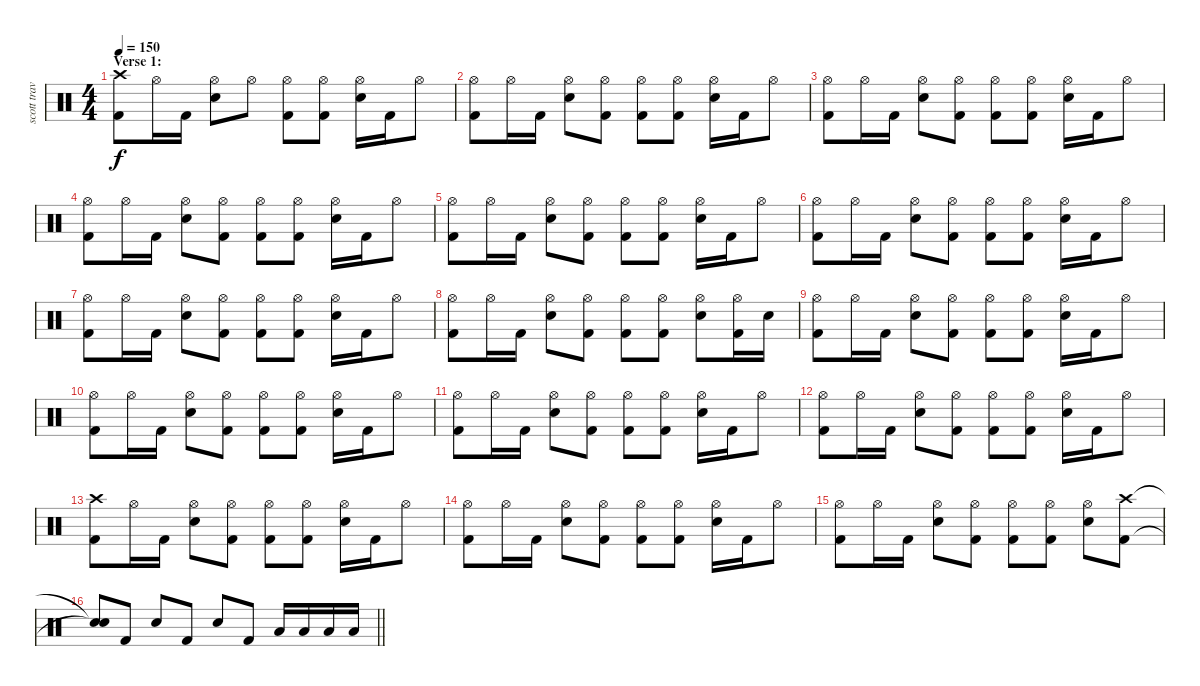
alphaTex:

\track ("scott travis" "scott trav") {instrument percussion}
\staff {score}
\articulation defaults
\ts (4 4)
\section ("" "Verse 1:")
\tempo 150
\clef neutral
\ks c
("Crash high (hit)" "Kick (hit) 2").8{dy f} "Hi-Hat (open)".16 "Kick (hit) 2".16 ("Hi-Hat (open)" "Snare (hit) 2").8 "Hi-Hat (open)".8 ("Hi-Hat (open)" "Kick (hit) 2").8 ("Hi-Hat (open)" "Kick (hit) 2").8 ("Hi-Hat (open)" "Snare (hit) 2").16 "Kick (hit) 2".16 "Hi-Hat (open)".8 |
("Hi-Hat (open)" "Kick (hit) 2").8 "Hi-Hat (open)".16 "Kick (hit) 2".16 ("Hi-Hat (open)" "Snare (hit) 2").8 ("Hi-Hat (open)" "Kick (hit) 2").8 ("Hi-Hat (open)" "Kick (hit) 2").8 ("Hi-Hat (open)" "Kick (hit) 2").8 ("Hi-Hat (open)" "Snare (hit) 2").16 "Kick (hit) 2".16 "Hi-Hat (open)".8 |
("Hi-Hat (open)" "Kick (hit) 2").8 "Hi-Hat (open)".16 "Kick (hit) 2".16 ("Hi-Hat (open)" "Snare (hit) 2").8 ("Hi-Hat (open)" "Kick (hit) 2").8 ("Hi-Hat (open)" "Kick (hit) 2").8 ("Hi-Hat (open)" "Kick (hit) 2").8 ("Hi-Hat (open)" "Snare (hit) 2").16 "Kick (hit) 2".16 "Hi-Hat (open)".8 |
("Hi-Hat (open)" "Kick (hit) 2").8 "Hi-Hat (open)".16 "Kick (hit) 2".16 ("Hi-Hat (open)" "Snare (hit) 2").8 ("Hi-Hat (open)" "Kick (hit) 2").8 ("Hi-Hat (open)" "Kick (hit) 2").8 ("Hi-Hat (open)" "Kick (hit) 2").8 ("Hi-Hat (open)" "Snare (hit) 2").16 "Kick (hit) 2".16 "Hi-Hat (open)".8 |
("Hi-Hat (open)" "Kick (hit) 2").8 "Hi-Hat (open)".16 "Kick (hit) 2".16 ("Hi-Hat (open)" "Snare (hit) 2").8 ("Hi-Hat (open)" "Kick (hit) 2").8 ("Hi-Hat (open)" "Kick (hit) 2").8 ("Hi-Hat (open)" "Kick (hit) 2").8 ("Hi-Hat (open)" "Snare (hit) 2").16 "Kick (hit) 2".16 "Hi-Hat (open)".8 |
("Hi-Hat (open)" "Kick (hit) 2").8 "Hi-Hat (open)".16 "Kick (hit) 2".16 ("Hi-Hat (open)" "Snare (hit) 2").8 ("Hi-Hat (open)" "Kick (hit) 2").8 ("Hi-Hat (open)" "Kick (hit) 2").8 ("Hi-Hat (open)" "Kick (hit) 2").8 ("Hi-Hat (open)" "Snare (hit) 2").16 "Kick (hit) 2".16 "Hi-Hat (open)".8 |
("Hi-Hat (open)" "Kick (hit) 2").8 "Hi-Hat (open)".16 "Kick (hit) 2".16 ("Hi-Hat (open)" "Snare (hit) 2").8 ("Hi-Hat (open)" "Kick (hit) 2").8 ("Hi-Hat (open)" "Kick (hit) 2").8 ("Hi-Hat (open)" "Kick (hit) 2").8 ("Hi-Hat (open)" "Snare (hit) 2").16 "Kick (hit) 2".16 "Hi-Hat (open)".8 |
("Hi-Hat (open)" "Kick (hit) 2").8 "Hi-Hat (open)".16 "Kick (hit) 2".16 ("Hi-Hat (open)" "Snare (hit) 2").8 ("Hi-Hat (open)" "Kick (hit) 2").8 ("Hi-Hat (open)" "Kick (hit) 2").8 ("Hi-Hat (open)" "Kick (hit) 2").8 ("Hi-Hat (open)" "Snare (hit) 2").8 ("Hi-Hat (open)" "Kick (hit) 2").16 "Snare (hit) 2".16 |
("Hi-Hat (open)" "Kick (hit) 2").8 "Hi-Hat (open)".16 "Kick (hit) 2".16 ("Hi-Hat (open)" "Snare (hit) 2").8 ("Hi-Hat (open)" "Kick (hit) 2").8 ("Hi-Hat (open)" "Kick (hit) 2").8 ("Hi-Hat (open)" "Kick (hit) 2").8 ("Hi-Hat (open)" "Snare (hit) 2").16 "Kick (hit) 2".16 "Hi-Hat (open)".8 |
("Hi-Hat (open)" "Kick (hit) 2").8 "Hi-Hat (open)".16 "Kick (hit) 2".16 ("Hi-Hat (open)" "Snare (hit) 2").8 ("Hi-Hat (open)" "Kick (hit) 2").8 ("Hi-Hat (open)" "Kick (hit) 2").8 ("Hi-Hat (open)" "Kick (hit) 2").8 ("Hi-Hat (open)" "Snare (hit) 2").16 "Kick (hit) 2".16 "Hi-Hat (open)".8 |
("Hi-Hat (open)" "Kick (hit) 2").8 "Hi-Hat (open)".16 "Kick (hit) 2".16 ("Hi-Hat (open)" "Snare (hit) 2").8 ("Hi-Hat (open)" "Kick (hit) 2").8 ("Hi-Hat (open)" "Kick (hit) 2").8 ("Hi-Hat (open)" "Kick (hit) 2").8 ("Hi-Hat (open)" "Snare (hit) 2").16 "Kick (hit) 2".16 "Hi-Hat (open)".8 |
("Hi-Hat (open)" "Kick (hit) 2").8 "Hi-Hat (open)".16 "Kick (hit) 2".16 ("Hi-Hat (open)" "Snare (hit) 2").8 ("Hi-Hat (open)" "Kick (hit) 2").8 ("Hi-Hat (open)" "Kick (hit) 2").8 ("Hi-Hat (open)" "Kick (hit) 2").8 ("Hi-Hat (open)" "Snare (hit) 2").16 "Kick (hit) 2".16 "Hi-Hat (open)".8 |
("Crash high (hit)" "Kick (hit) 2").8 "Hi-Hat (open)".16 "Kick (hit) 2".16 ("Hi-Hat (open)" "Snare (hit) 2").8 ("Hi-Hat (open)" "Kick (hit) 2").8 ("Hi-Hat (open)" "Kick (hit) 2").8 ("Hi-Hat (open)" "Kick (hit) 2").8 ("Hi-Hat (open)" "Snare (hit) 2").16 "Kick (hit) 2".16 "Hi-Hat (open)".8 |
("Hi-Hat (open)" "Kick (hit) 2").8 "Hi-Hat (open)".16 "Kick (hit) 2".16 ("Hi-Hat (open)" "Snare (hit) 2").8 ("Hi-Hat (open)" "Kick (hit) 2").8 ("Hi-Hat (open)" "Kick (hit) 2").8 ("Hi-Hat (open)" "Kick (hit) 2").8 ("Hi-Hat (open)" "Snare (hit) 2").16 "Kick (hit) 2".16 "Hi-Hat (open)".8 |
("Hi-Hat (open)" "Kick (hit) 2").8 "Hi-Hat (open)".16 "Kick (hit) 2".16 ("Hi-Hat (open)" "Snare (hit) 2").8 ("Hi-Hat (open)" "Kick (hit) 2").8 ("Hi-Hat (open)" "Kick (hit) 2").8 ("Hi-Hat (open)" "Kick (hit) 2").8 ("Hi-Hat (open)" "Snare (hit) 2").8 ("Crash high (hit)" "Kick (hit) 2").8 |
\barLineRight lightlight
("Snare (hit)"{t} "Snare (hit)"{t}).8 "Kick (hit) 2".8 "Snare (hit) 2".8 "Kick (hit) 2".8 "Snare (hit) 2".8 "Kick (hit) 2".8 "Low Floor Tom (hit)".16 "Low Floor Tom (hit)".16 "Low Floor Tom (hit)".16 "Low Floor Tom (hit)".16
